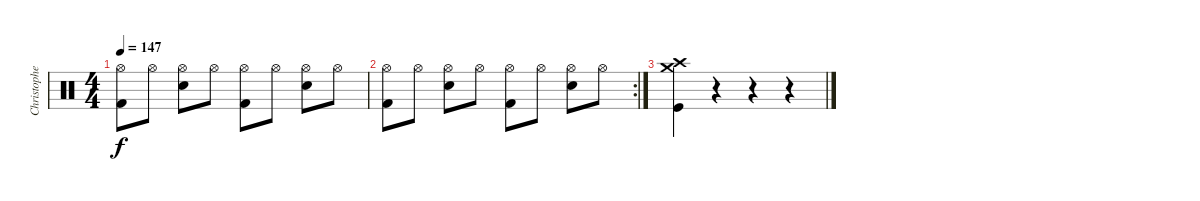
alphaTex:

\track ("Christopher Schneider  (Drums)" "Christophe") {instrument percussion}
\staff {score}
\articulation defaults
\ts (4 4)
\tempo 147
\clef neutral
\ks c
("Hi-Hat (open)" "Kick (hit) 2").8{dy f} "Hi-Hat (open)".8 ("Hi-Hat (open)" "Electric Snare (hit)").8 "Hi-Hat (open)".8 ("Hi-Hat (open)" "Kick (hit) 2").8 "Hi-Hat (open)".8 ("Hi-Hat (open)" "Electric Snare (hit)").8 "Hi-Hat (open)".8 |
\rc 2
("Hi-Hat (open)" "Kick (hit) 2").8 "Hi-Hat (open)".8 ("Hi-Hat (open)" "Electric Snare (hit)").8 "Hi-Hat (open)".8 ("Hi-Hat (open)" "Kick (hit) 2").8 "Hi-Hat (open)".8 ("Hi-Hat (open)" "Electric Snare (hit)").8 "Hi-Hat (open)".8 |
("Crash medium (hit)" "Crash high (hit)" "Kick (hit)").4 r.4 r.4 r.4
